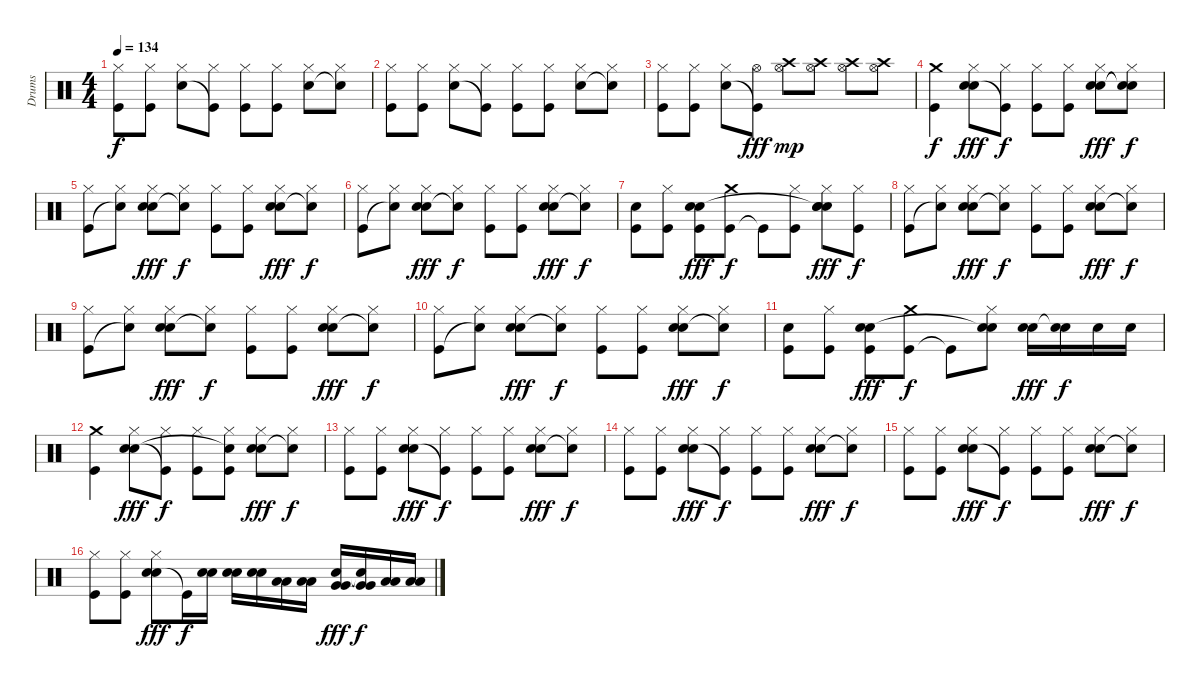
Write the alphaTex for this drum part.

\track ("Drums" "Drums") {instrument percussion}
\staff {score}
\articulation defaults
\ts (4 4)
\tempo 134
\clef neutral
\ks c
("Kick (hit)" "Hi-Hat (closed)").8{dy f} ("Kick (hit)" "Hi-Hat (closed)").8 ("Snare (hit) 2" "Hi-Hat (closed)").8 ("Kick (hit)"{t} "Hi-Hat (closed)").8 ("Kick (hit)" "Hi-Hat (closed)").8 ("Kick (hit)" "Hi-Hat (closed)").8 ("Snare (hit) 2" "Hi-Hat (closed)").8 ("Snare (hit)"{t} "Hi-Hat (closed)").8 |
("Kick (hit)" "Hi-Hat (closed)").8 ("Kick (hit)" "Hi-Hat (closed)").8 ("Snare (hit) 2" "Hi-Hat (closed)").8 ("Kick (hit)"{t} "Hi-Hat (closed)").8 ("Kick (hit)" "Hi-Hat (closed)").8 ("Kick (hit)" "Hi-Hat (closed)").8 ("Snare (hit) 2" "Hi-Hat (closed)").8 ("Snare (hit)"{t} "Hi-Hat (closed)").8 |
("Kick (hit)" "Hi-Hat (closed)").8 ("Kick (hit)" "Hi-Hat (closed)").8 ("Snare (hit) 2" "Hi-Hat (closed)").8 ("Kick (hit)"{t} "Hi-Hat (open)").8{dy fff} ("Hi-Hat (open)" "Crash high (hit)").8{dy mp} ("Hi-Hat (open)" "Crash high (hit)").8 ("Hi-Hat (open)" "Crash high (hit)").8 ("Hi-Hat (open)" "Crash high (hit)").8 |
("Kick (hit)" "Crash medium (hit)").4{dy f} ("Snare (hit) 2" "Hi-Hat (closed)" "Hand Clap (hit)").8{dy fff} ("Kick (hit)"{t} "Hi-Hat (closed)").8{dy f} ("Kick (hit)" "Hi-Hat (closed)").8 ("Kick (hit)" "Hi-Hat (closed)").8 ("Snare (hit) 2" "Hi-Hat (closed)" "Hand Clap (hit)").8{dy fff} ("Snare (hit)"{t} "Hi-Hat (closed)" "Snare (hit)"{t}).8{dy f} |
("Kick (hit)" "Hi-Hat (closed)").8 ("Snare (hit)"{t} "Hi-Hat (closed)").8 ("Snare (hit) 2" "Hi-Hat (closed)" "Hand Clap (hit)").8{dy fff} ("Snare (hit)"{t} "Hi-Hat (closed)").8{dy f} ("Kick (hit)" "Hi-Hat (closed)").8 ("Kick (hit)" "Hi-Hat (closed)").8 ("Snare (hit) 2" "Hi-Hat (closed)" "Hand Clap (hit)").8{dy fff} ("Snare (hit)"{t} "Hi-Hat (closed)").8{dy f} |
("Kick (hit)" "Hi-Hat (closed)").8 ("Snare (hit)"{t} "Hi-Hat (closed)").8 ("Snare (hit) 2" "Hi-Hat (closed)" "Hand Clap (hit)").8{dy fff} ("Snare (hit)"{t} "Hi-Hat (closed)").8{dy f} ("Kick (hit)" "Hi-Hat (closed)").8 ("Kick (hit)" "Hi-Hat (closed)").8 ("Snare (hit) 2" "Hi-Hat (closed)" "Hand Clap (hit)").8{dy fff} ("Snare (hit)"{t} "Hi-Hat (closed)").8{dy f} |
("Kick (hit)" "Snare (hit) 2").8 ("Kick (hit)" "Hi-Hat (closed)").8 ("Kick (hit)" "Snare (hit) 2" "Hand Clap (hit)").8{dy fff} ("Kick (hit)" "Crash medium (hit)").8{dy f} "Kick (hit)"{t}.8 ("Kick (hit)" "Hi-Hat (closed)").8 ("Snare (hit) 2" "Hi-Hat (closed)" "Snare (hit)"{t} "Hand Clap (hit)").8{dy fff} ("Kick (hit)" "Hi-Hat (closed)").8{dy f} |
("Kick (hit)" "Hi-Hat (closed)").8 ("Snare (hit)"{t} "Hi-Hat (closed)").8 ("Snare (hit) 2" "Hi-Hat (closed)" "Hand Clap (hit)").8{dy fff} ("Snare (hit)"{t} "Hi-Hat (closed)").8{dy f} ("Kick (hit)" "Hi-Hat (closed)").8 ("Kick (hit)" "Hi-Hat (closed)").8 ("Snare (hit) 2" "Hi-Hat (closed)" "Hand Clap (hit)").8{dy fff} ("Snare (hit)"{t} "Hi-Hat (closed)").8{dy f} |
("Kick (hit)" "Hi-Hat (closed)").8 ("Snare (hit)"{t} "Hi-Hat (closed)").8 ("Snare (hit) 2" "Hi-Hat (closed)" "Hand Clap (hit)").8{dy fff} ("Snare (hit)"{t} "Hi-Hat (closed)").8{dy f} ("Kick (hit)" "Hi-Hat (closed)").8 ("Kick (hit)" "Hi-Hat (closed)").8 ("Snare (hit) 2" "Hi-Hat (closed)" "Hand Clap (hit)").8{dy fff} ("Snare (hit)"{t} "Hi-Hat (closed)").8{dy f} |
("Kick (hit)" "Hi-Hat (closed)").8 ("Snare (hit)"{t} "Hi-Hat (closed)").8 ("Snare (hit) 2" "Hi-Hat (closed)" "Hand Clap (hit)").8{dy fff} ("Snare (hit)"{t} "Hi-Hat (closed)").8{dy f} ("Kick (hit)" "Hi-Hat (closed)").8 ("Kick (hit)" "Hi-Hat (closed)").8 ("Snare (hit) 2" "Hi-Hat (closed)" "Hand Clap (hit)").8{dy fff} ("Snare (hit)"{t} "Hi-Hat (closed)").8{dy f} |
("Kick (hit)" "Snare (hit) 2").8 ("Kick (hit)" "Hi-Hat (closed)").8 ("Kick (hit)" "Snare (hit) 2" "Hand Clap (hit)").8{dy fff} ("Kick (hit)" "Crash medium (hit)").8{dy f} "Kick (hit)"{t}.8 ("Snare (hit) 2" "Hi-Hat (closed)" "Snare (hit)"{t}).8 ("Snare (hit) 2" "Hand Clap (hit)").16{dy fff} ("Snare (hit) 2" "Snare (hit)"{t}).16{dy f} "Snare (hit) 2".16 "Snare (hit) 2".16 |
("Kick (hit)" "Crash medium (hit)").4 ("Snare (hit) 2" "Hi-Hat (closed)" "Hand Clap (hit)").8{dy fff} ("Kick (hit)"{t} "Hi-Hat (closed)").8{dy f} ("Kick (hit)" "Hi-Hat (closed)").8 ("Kick (hit)" "Hi-Hat (closed)" "Snare (hit)"{t}).8 ("Snare (hit) 2" "Hi-Hat (closed)" "Hand Clap (hit)").8{dy fff} ("Snare (hit)"{t} "Hi-Hat (closed)").8{dy f} |
("Kick (hit)" "Hi-Hat (closed)").8 ("Kick (hit)" "Hi-Hat (closed)").8 ("Snare (hit) 2" "Hi-Hat (closed)" "Hand Clap (hit)").8{dy fff} ("Kick (hit)"{t} "Hi-Hat (closed)").8{dy f} ("Kick (hit)" "Hi-Hat (closed)").8 ("Kick (hit)" "Hi-Hat (closed)").8 ("Snare (hit) 2" "Hi-Hat (closed)" "Hand Clap (hit)").8{dy fff} ("Snare (hit)"{t} "Hi-Hat (closed)").8{dy f} |
("Kick (hit)" "Hi-Hat (closed)").8 ("Kick (hit)" "Hi-Hat (closed)").8 ("Snare (hit) 2" "Hi-Hat (closed)" "Hand Clap (hit)").8{dy fff} ("Kick (hit)"{t} "Hi-Hat (closed)").8{dy f} ("Kick (hit)" "Hi-Hat (closed)").8 ("Kick (hit)" "Hi-Hat (closed)").8 ("Snare (hit) 2" "Hi-Hat (closed)" "Hand Clap (hit)").8{dy fff} ("Snare (hit)"{t} "Hi-Hat (closed)").8{dy f} |
("Kick (hit)" "Hi-Hat (closed)").8 ("Kick (hit)" "Hi-Hat (closed)").8 ("Snare (hit) 2" "Hi-Hat (closed)" "Hand Clap (hit)").8{dy fff} ("Kick (hit)"{t} "Hi-Hat (closed)").8{dy f} ("Kick (hit)" "Hi-Hat (closed)").8 ("Kick (hit)" "Hi-Hat (closed)").8 ("Snare (hit) 2" "Hi-Hat (closed)" "Hand Clap (hit)").8{dy fff} ("Snare (hit)"{t} "Hi-Hat (closed)").8{dy f} |
("Kick (hit)" "Hi-Hat (closed)").8 ("Kick (hit)" "Hi-Hat (closed)").8 ("Snare (hit) 2" "Hi-Hat (closed)" "Hand Clap (hit)").8{dy fff} "Kick (hit)"{t}.16{dy f} ("Snare (hit) 2" "Snare (hit) 2").16 ("Snare (hit) 2" "Snare (hit) 2").16 ("Snare (hit) 2" "Snare (hit) 2").16 ("Low Tom (hit)" "Low Tom (hit)").16 ("Low Tom (hit)" "Low Tom (hit)").16 ("Very Low Tom (hit)" "Very Low Tom (hit)" "Hand Clap (hit)").16{dy fff} ("Very Low Tom (hit)" "Very Low Tom (hit)" "Snare (hit)"{t}).16{dy f} ("Low Floor Tom (hit)" "Low Floor Tom (hit)").16 ("Low Floor Tom (hit)" "Low Floor Tom (hit)").16
